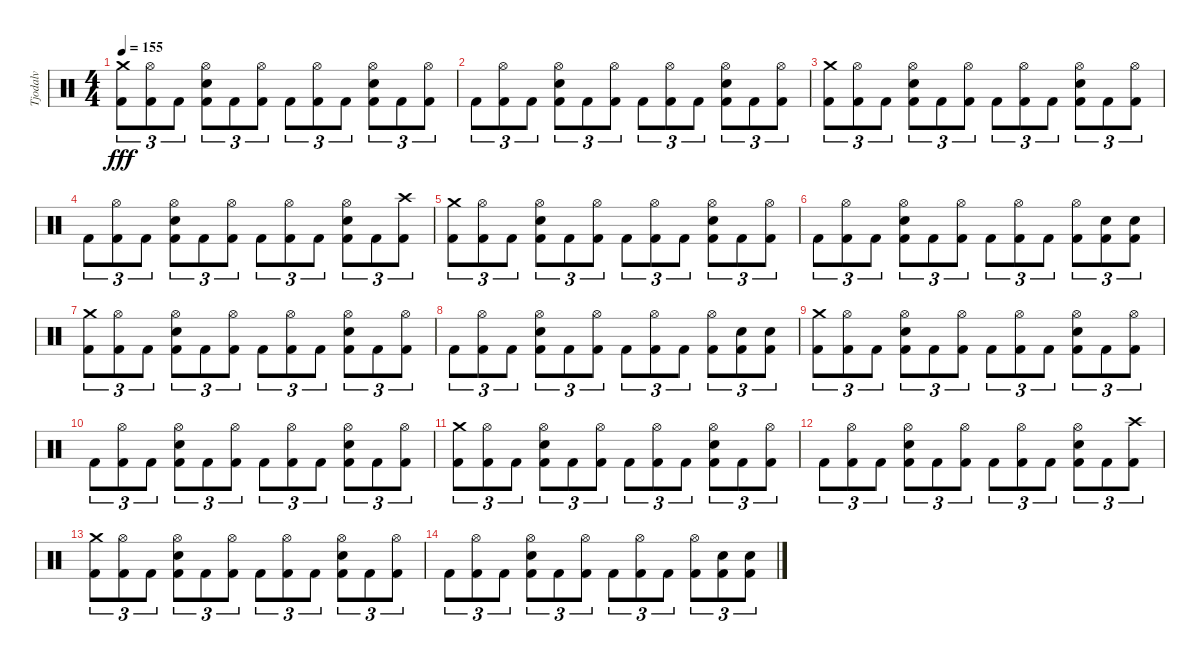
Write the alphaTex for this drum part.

\track ("Tjodalv" "Tjodalv") {instrument percussion}
\staff {score}
\articulation defaults
\ts (4 4)
\tempo 155
\clef neutral
\ks c
("Crash medium (hit)" "Kick (hit) 2").8{tu (3 2) dy fff} ("Hi-Hat (open)" "Kick (hit) 2").8{tu (3 2)} "Kick (hit) 2".8{tu (3 2)} ("Hi-Hat (open)" "Snare (hit) 2" "Kick (hit) 2").8{tu (3 2)} "Kick (hit) 2".8{tu (3 2)} ("Hi-Hat (open)" "Kick (hit) 2").8{tu (3 2)} "Kick (hit) 2".8{tu (3 2)} ("Hi-Hat (open)" "Kick (hit) 2").8{tu (3 2)} "Kick (hit) 2".8{tu (3 2)} ("Hi-Hat (open)" "Snare (hit) 2" "Kick (hit) 2").8{tu (3 2)} "Kick (hit) 2".8{tu (3 2)} ("Hi-Hat (open)" "Kick (hit) 2").8{tu (3 2)} |
"Kick (hit) 2".8{tu (3 2)} ("Hi-Hat (open)" "Kick (hit) 2").8{tu (3 2)} "Kick (hit) 2".8{tu (3 2)} ("Hi-Hat (open)" "Snare (hit) 2" "Kick (hit) 2").8{tu (3 2)} "Kick (hit) 2".8{tu (3 2)} ("Hi-Hat (open)" "Kick (hit) 2").8{tu (3 2)} "Kick (hit) 2".8{tu (3 2)} ("Hi-Hat (open)" "Kick (hit) 2").8{tu (3 2)} "Kick (hit) 2".8{tu (3 2)} ("Hi-Hat (open)" "Snare (hit) 2" "Kick (hit) 2").8{tu (3 2)} "Kick (hit) 2".8{tu (3 2)} ("Hi-Hat (open)" "Kick (hit) 2").8{tu (3 2)} |
("Crash medium (hit)" "Kick (hit) 2").8{tu (3 2)} ("Hi-Hat (open)" "Kick (hit) 2").8{tu (3 2)} "Kick (hit) 2".8{tu (3 2)} ("Hi-Hat (open)" "Snare (hit) 2" "Kick (hit) 2").8{tu (3 2)} "Kick (hit) 2".8{tu (3 2)} ("Hi-Hat (open)" "Kick (hit) 2").8{tu (3 2)} "Kick (hit) 2".8{tu (3 2)} ("Hi-Hat (open)" "Kick (hit) 2").8{tu (3 2)} "Kick (hit) 2".8{tu (3 2)} ("Hi-Hat (open)" "Snare (hit) 2" "Kick (hit) 2").8{tu (3 2)} "Kick (hit) 2".8{tu (3 2)} ("Hi-Hat (open)" "Kick (hit) 2").8{tu (3 2)} |
"Kick (hit) 2".8{tu (3 2)} ("Hi-Hat (open)" "Kick (hit) 2").8{tu (3 2)} "Kick (hit) 2".8{tu (3 2)} ("Hi-Hat (open)" "Snare (hit) 2" "Kick (hit) 2").8{tu (3 2)} "Kick (hit) 2".8{tu (3 2)} ("Hi-Hat (open)" "Kick (hit) 2").8{tu (3 2)} "Kick (hit) 2".8{tu (3 2)} ("Hi-Hat (open)" "Kick (hit) 2").8{tu (3 2)} "Kick (hit) 2".8{tu (3 2)} ("Hi-Hat (open)" "Snare (hit) 2" "Kick (hit) 2").8{tu (3 2)} "Kick (hit) 2".8{tu (3 2)} ("Crash high (hit)" "Kick (hit) 2").8{tu (3 2)} |
("Crash medium (hit)" "Kick (hit) 2").8{tu (3 2)} ("Hi-Hat (open)" "Kick (hit) 2").8{tu (3 2)} "Kick (hit) 2".8{tu (3 2)} ("Hi-Hat (open)" "Snare (hit) 2" "Kick (hit) 2").8{tu (3 2)} "Kick (hit) 2".8{tu (3 2)} ("Hi-Hat (open)" "Kick (hit) 2").8{tu (3 2)} "Kick (hit) 2".8{tu (3 2)} ("Hi-Hat (open)" "Kick (hit) 2").8{tu (3 2)} "Kick (hit) 2".8{tu (3 2)} ("Hi-Hat (open)" "Snare (hit) 2" "Kick (hit) 2").8{tu (3 2)} "Kick (hit) 2".8{tu (3 2)} ("Hi-Hat (open)" "Kick (hit) 2").8{tu (3 2)} |
"Kick (hit) 2".8{tu (3 2)} ("Hi-Hat (open)" "Kick (hit) 2").8{tu (3 2)} "Kick (hit) 2".8{tu (3 2)} ("Hi-Hat (open)" "Snare (hit) 2" "Kick (hit) 2").8{tu (3 2)} "Kick (hit) 2".8{tu (3 2)} ("Hi-Hat (open)" "Kick (hit) 2").8{tu (3 2)} "Kick (hit) 2".8{tu (3 2)} ("Hi-Hat (open)" "Kick (hit) 2").8{tu (3 2)} "Kick (hit) 2".8{tu (3 2)} ("Hi-Hat (open)" "Kick (hit) 2").8{tu (3 2)} ("Snare (hit) 2" "Kick (hit) 2").8{tu (3 2)} ("Snare (hit) 2" "Kick (hit) 2").8{tu (3 2)} |
("Crash medium (hit)" "Kick (hit) 2").8{tu (3 2) volume 8} ("Hi-Hat (open)" "Kick (hit) 2").8{tu (3 2)} "Kick (hit) 2".8{tu (3 2)} ("Hi-Hat (open)" "Snare (hit) 2" "Kick (hit) 2").8{tu (3 2)} "Kick (hit) 2".8{tu (3 2)} ("Hi-Hat (open)" "Kick (hit) 2").8{tu (3 2)} "Kick (hit) 2".8{tu (3 2)} ("Hi-Hat (open)" "Kick (hit) 2").8{tu (3 2)} "Kick (hit) 2".8{tu (3 2)} ("Hi-Hat (open)" "Snare (hit) 2" "Kick (hit) 2").8{tu (3 2)} "Kick (hit) 2".8{tu (3 2)} ("Hi-Hat (open)" "Kick (hit) 2").8{tu (3 2)} |
"Kick (hit) 2".8{tu (3 2)} ("Hi-Hat (open)" "Kick (hit) 2").8{tu (3 2)} "Kick (hit) 2".8{tu (3 2)} ("Hi-Hat (open)" "Snare (hit) 2" "Kick (hit) 2").8{tu (3 2)} "Kick (hit) 2".8{tu (3 2)} ("Hi-Hat (open)" "Kick (hit) 2").8{tu (3 2)} "Kick (hit) 2".8{tu (3 2)} ("Hi-Hat (open)" "Kick (hit) 2").8{tu (3 2)} "Kick (hit) 2".8{tu (3 2)} ("Hi-Hat (open)" "Kick (hit) 2").8{tu (3 2)} ("Snare (hit) 2" "Kick (hit) 2").8{tu (3 2)} ("Snare (hit) 2" "Kick (hit) 2").8{tu (3 2)} |
("Crash medium (hit)" "Kick (hit) 2").8{tu (3 2)} ("Hi-Hat (open)" "Kick (hit) 2").8{tu (3 2)} "Kick (hit) 2".8{tu (3 2)} ("Hi-Hat (open)" "Snare (hit) 2" "Kick (hit) 2").8{tu (3 2)} "Kick (hit) 2".8{tu (3 2)} ("Hi-Hat (open)" "Kick (hit) 2").8{tu (3 2)} "Kick (hit) 2".8{tu (3 2)} ("Hi-Hat (open)" "Kick (hit) 2").8{tu (3 2)} "Kick (hit) 2".8{tu (3 2)} ("Hi-Hat (open)" "Snare (hit) 2" "Kick (hit) 2").8{tu (3 2)} "Kick (hit) 2".8{tu (3 2)} ("Hi-Hat (open)" "Kick (hit) 2").8{tu (3 2)} |
"Kick (hit) 2".8{tu (3 2)} ("Hi-Hat (open)" "Kick (hit) 2").8{tu (3 2)} "Kick (hit) 2".8{tu (3 2)} ("Hi-Hat (open)" "Snare (hit) 2" "Kick (hit) 2").8{tu (3 2)} "Kick (hit) 2".8{tu (3 2)} ("Hi-Hat (open)" "Kick (hit) 2").8{tu (3 2)} "Kick (hit) 2".8{tu (3 2)} ("Hi-Hat (open)" "Kick (hit) 2").8{tu (3 2)} "Kick (hit) 2".8{tu (3 2)} ("Hi-Hat (open)" "Snare (hit) 2" "Kick (hit) 2").8{tu (3 2)} "Kick (hit) 2".8{tu (3 2)} ("Hi-Hat (open)" "Kick (hit) 2").8{tu (3 2)} |
("Crash medium (hit)" "Kick (hit) 2").8{tu (3 2) volume 0} ("Hi-Hat (open)" "Kick (hit) 2").8{tu (3 2)} "Kick (hit) 2".8{tu (3 2)} ("Hi-Hat (open)" "Snare (hit) 2" "Kick (hit) 2").8{tu (3 2)} "Kick (hit) 2".8{tu (3 2)} ("Hi-Hat (open)" "Kick (hit) 2").8{tu (3 2)} "Kick (hit) 2".8{tu (3 2)} ("Hi-Hat (open)" "Kick (hit) 2").8{tu (3 2)} "Kick (hit) 2".8{tu (3 2)} ("Hi-Hat (open)" "Snare (hit) 2" "Kick (hit) 2").8{tu (3 2)} "Kick (hit) 2".8{tu (3 2)} ("Hi-Hat (open)" "Kick (hit) 2").8{tu (3 2)} |
"Kick (hit) 2".8{tu (3 2)} ("Hi-Hat (open)" "Kick (hit) 2").8{tu (3 2)} "Kick (hit) 2".8{tu (3 2)} ("Hi-Hat (open)" "Snare (hit) 2" "Kick (hit) 2").8{tu (3 2)} "Kick (hit) 2".8{tu (3 2)} ("Hi-Hat (open)" "Kick (hit) 2").8{tu (3 2)} "Kick (hit) 2".8{tu (3 2)} ("Hi-Hat (open)" "Kick (hit) 2").8{tu (3 2)} "Kick (hit) 2".8{tu (3 2)} ("Hi-Hat (open)" "Snare (hit) 2" "Kick (hit) 2").8{tu (3 2)} "Kick (hit) 2".8{tu (3 2)} ("Crash high (hit)" "Kick (hit) 2").8{tu (3 2)} |
("Crash medium (hit)" "Kick (hit) 2").8{tu (3 2)} ("Hi-Hat (open)" "Kick (hit) 2").8{tu (3 2)} "Kick (hit) 2".8{tu (3 2)} ("Hi-Hat (open)" "Snare (hit) 2" "Kick (hit) 2").8{tu (3 2)} "Kick (hit) 2".8{tu (3 2)} ("Hi-Hat (open)" "Kick (hit) 2").8{tu (3 2)} "Kick (hit) 2".8{tu (3 2)} ("Hi-Hat (open)" "Kick (hit) 2").8{tu (3 2)} "Kick (hit) 2".8{tu (3 2)} ("Hi-Hat (open)" "Snare (hit) 2" "Kick (hit) 2").8{tu (3 2)} "Kick (hit) 2".8{tu (3 2)} ("Hi-Hat (open)" "Kick (hit) 2").8{tu (3 2)} |
"Kick (hit) 2".8{tu (3 2)} ("Hi-Hat (open)" "Kick (hit) 2").8{tu (3 2)} "Kick (hit) 2".8{tu (3 2)} ("Hi-Hat (open)" "Snare (hit) 2" "Kick (hit) 2").8{tu (3 2)} "Kick (hit) 2".8{tu (3 2)} ("Hi-Hat (open)" "Kick (hit) 2").8{tu (3 2)} "Kick (hit) 2".8{tu (3 2)} ("Hi-Hat (open)" "Kick (hit) 2").8{tu (3 2)} "Kick (hit) 2".8{tu (3 2)} ("Hi-Hat (open)" "Kick (hit) 2").8{tu (3 2)} ("Snare (hit) 2" "Kick (hit) 2").8{tu (3 2)} ("Snare (hit) 2" "Kick (hit) 2").8{tu (3 2)}
